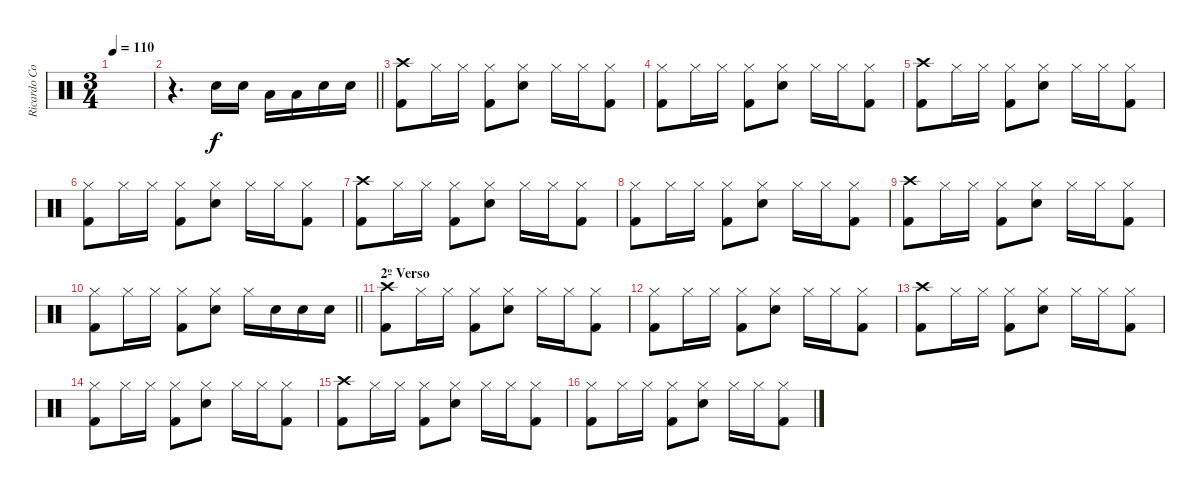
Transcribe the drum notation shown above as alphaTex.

\track ("Ricardo Confessori" "Ricardo Co") {instrument percussion}
\staff {score}
\articulation defaults
\ts (3 4)
\tempo 110
\clef neutral
\ks c
|
\barLineRight lightlight
r.4{d} "Electric Snare (hit)".16 "Electric Snare (hit)".16 "Low Tom (hit)".16 "Low Tom (hit)".16 "Electric Snare (hit)".16 "Electric Snare (hit)".16 |
("Crash high (hit)" "Kick (hit) 2").8 "Hi-Hat (closed)".16 "Hi-Hat (closed)".16 ("Hi-Hat (closed)" "Kick (hit) 2").8 ("Hi-Hat (closed)" "Electric Snare (hit)").8 "Hi-Hat (closed)".16 "Hi-Hat (closed)".16 ("Hi-Hat (closed)" "Kick (hit) 2").8 |
("Hi-Hat (closed)" "Kick (hit) 2").8 "Hi-Hat (closed)".16 "Hi-Hat (closed)".16 ("Hi-Hat (closed)" "Kick (hit) 2").8 ("Hi-Hat (closed)" "Electric Snare (hit)").8 "Hi-Hat (closed)".16 "Hi-Hat (closed)".16 ("Hi-Hat (closed)" "Kick (hit) 2").8 |
("Crash high (hit)" "Kick (hit) 2").8 "Hi-Hat (closed)".16 "Hi-Hat (closed)".16 ("Hi-Hat (closed)" "Kick (hit) 2").8 ("Hi-Hat (closed)" "Electric Snare (hit)").8 "Hi-Hat (closed)".16 "Hi-Hat (closed)".16 ("Hi-Hat (closed)" "Kick (hit) 2").8 |
("Hi-Hat (closed)" "Kick (hit) 2").8 "Hi-Hat (closed)".16 "Hi-Hat (closed)".16 ("Hi-Hat (closed)" "Kick (hit) 2").8 ("Hi-Hat (closed)" "Electric Snare (hit)").8 "Hi-Hat (closed)".16 "Hi-Hat (closed)".16 ("Hi-Hat (closed)" "Kick (hit) 2").8 |
("Crash high (hit)" "Kick (hit) 2").8 "Hi-Hat (closed)".16 "Hi-Hat (closed)".16 ("Hi-Hat (closed)" "Kick (hit) 2").8 ("Hi-Hat (closed)" "Electric Snare (hit)").8 "Hi-Hat (closed)".16 "Hi-Hat (closed)".16 ("Hi-Hat (closed)" "Kick (hit) 2").8 |
("Hi-Hat (closed)" "Kick (hit) 2").8 "Hi-Hat (closed)".16 "Hi-Hat (closed)".16 ("Hi-Hat (closed)" "Kick (hit) 2").8 ("Hi-Hat (closed)" "Electric Snare (hit)").8 "Hi-Hat (closed)".16 "Hi-Hat (closed)".16 ("Hi-Hat (closed)" "Kick (hit) 2").8 |
("Crash high (hit)" "Kick (hit) 2").8 "Hi-Hat (closed)".16 "Hi-Hat (closed)".16 ("Hi-Hat (closed)" "Kick (hit) 2").8 ("Hi-Hat (closed)" "Electric Snare (hit)").8 "Hi-Hat (closed)".16 "Hi-Hat (closed)".16 ("Hi-Hat (closed)" "Kick (hit) 2").8 |
\barLineRight lightlight
("Hi-Hat (closed)" "Kick (hit) 2").8 "Hi-Hat (closed)".16 "Hi-Hat (closed)".16 ("Hi-Hat (closed)" "Kick (hit) 2").8 ("Hi-Hat (closed)" "Electric Snare (hit)").8 "Hi-Hat (closed)".16 "Electric Snare (hit)".16 "Electric Snare (hit)".16 "Electric Snare (hit)".16 |
\section ("" "2º Verso")
("Crash high (hit)" "Kick (hit) 2").8 "Hi-Hat (closed)".16 "Hi-Hat (closed)".16 ("Hi-Hat (closed)" "Kick (hit) 2").8 ("Hi-Hat (closed)" "Electric Snare (hit)").8 "Hi-Hat (closed)".16 "Hi-Hat (closed)".16 ("Hi-Hat (closed)" "Kick (hit) 2").8 |
("Hi-Hat (closed)" "Kick (hit) 2").8 "Hi-Hat (closed)".16 "Hi-Hat (closed)".16 ("Hi-Hat (closed)" "Kick (hit) 2").8 ("Hi-Hat (closed)" "Electric Snare (hit)").8 "Hi-Hat (closed)".16 "Hi-Hat (closed)".16 ("Hi-Hat (closed)" "Kick (hit) 2").8 |
("Crash high (hit)" "Kick (hit) 2").8 "Hi-Hat (closed)".16 "Hi-Hat (closed)".16 ("Hi-Hat (closed)" "Kick (hit) 2").8 ("Hi-Hat (closed)" "Electric Snare (hit)").8 "Hi-Hat (closed)".16 "Hi-Hat (closed)".16 ("Hi-Hat (closed)" "Kick (hit) 2").8 |
("Hi-Hat (closed)" "Kick (hit) 2").8 "Hi-Hat (closed)".16 "Hi-Hat (closed)".16 ("Hi-Hat (closed)" "Kick (hit) 2").8 ("Hi-Hat (closed)" "Electric Snare (hit)").8 "Hi-Hat (closed)".16 "Hi-Hat (closed)".16 ("Hi-Hat (closed)" "Kick (hit) 2").8 |
("Crash high (hit)" "Kick (hit) 2").8 "Hi-Hat (closed)".16 "Hi-Hat (closed)".16 ("Hi-Hat (closed)" "Kick (hit) 2").8 ("Hi-Hat (closed)" "Electric Snare (hit)").8 "Hi-Hat (closed)".16 "Hi-Hat (closed)".16 ("Hi-Hat (closed)" "Kick (hit) 2").8 |
("Hi-Hat (closed)" "Kick (hit) 2").8 "Hi-Hat (closed)".16 "Hi-Hat (closed)".16 ("Hi-Hat (closed)" "Kick (hit) 2").8 ("Hi-Hat (closed)" "Electric Snare (hit)").8 "Hi-Hat (closed)".16 "Hi-Hat (closed)".16 ("Hi-Hat (closed)" "Kick (hit) 2").8
